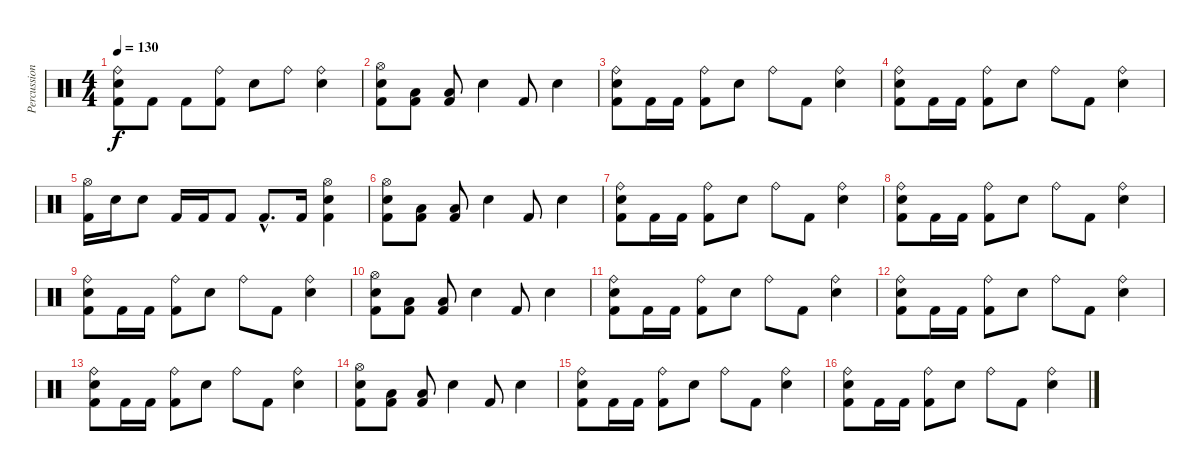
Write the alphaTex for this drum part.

\track ("Percussion" "Percussion") {instrument percussion}
\staff {score}
\articulation defaults
\ts (4 4)
\tempo 130
\clef neutral
\ks c
("Ride (bell)" "Electric Snare (hit)" "Kick (hit) 2").8{dy f} "Kick (hit) 2".8 "Kick (hit) 2".8 ("Ride (bell)" "Kick (hit) 2").8 "Electric Snare (hit)".8 "Ride (bell)".8 ("Ride (bell)" "Electric Snare (hit)").4 |
("Hi-Hat (open)" "Electric Snare (hit)" "Kick (hit) 2").8 ("Low Floor Tom (hit)" "Kick (hit) 2").8 ("Low Floor Tom (hit)" "Kick (hit) 2").8 "Electric Snare (hit)".4 "Kick (hit) 2".8 "Electric Snare (hit)".4 |
("Ride (bell)" "Electric Snare (hit)" "Kick (hit) 2").8 "Kick (hit) 2".16 "Kick (hit) 2".16 ("Ride (bell)" "Kick (hit) 2").8 "Electric Snare (hit)".8 "Ride (bell)".8 "Kick (hit) 2".8 ("Ride (bell)" "Electric Snare (hit)").4 |
("Ride (bell)" "Electric Snare (hit)" "Kick (hit) 2").8 "Kick (hit) 2".16 "Kick (hit) 2".16 ("Ride (bell)" "Kick (hit) 2").8 "Electric Snare (hit)".8 "Ride (bell)".8 "Kick (hit) 2".8 ("Ride (bell)" "Electric Snare (hit)").4 |
("Hi-Hat (open)" "Kick (hit) 2").16 "Electric Snare (hit)".16 "Electric Snare (hit)".8 "Kick (hit) 2".16 "Kick (hit) 2".16 "Kick (hit) 2".8 "Kick (hit) 2"{hac}.8{d} "Kick (hit) 2".16 ("Hi-Hat (open)" "Kick (hit) 2" "Electric Snare (hit)").4 |
("Hi-Hat (open)" "Electric Snare (hit)" "Kick (hit) 2").8 ("Low Floor Tom (hit)" "Kick (hit) 2").8 ("Low Floor Tom (hit)" "Kick (hit) 2").8 "Electric Snare (hit)".4 "Kick (hit) 2".8 "Electric Snare (hit)".4 |
("Ride (bell)" "Electric Snare (hit)" "Kick (hit) 2").8 "Kick (hit) 2".16 "Kick (hit) 2".16 ("Ride (bell)" "Kick (hit) 2").8 "Electric Snare (hit)".8 "Ride (bell)".8 "Kick (hit) 2".8 ("Ride (bell)" "Electric Snare (hit)").4 |
("Ride (bell)" "Electric Snare (hit)" "Kick (hit) 2").8 "Kick (hit) 2".16 "Kick (hit) 2".16 ("Ride (bell)" "Kick (hit) 2").8 "Electric Snare (hit)".8 "Ride (bell)".8 "Kick (hit) 2".8 ("Ride (bell)" "Electric Snare (hit)").4 |
("Ride (bell)" "Electric Snare (hit)" "Kick (hit) 2").8 "Kick (hit) 2".16 "Kick (hit) 2".16 ("Ride (bell)" "Kick (hit) 2").8 "Electric Snare (hit)".8 "Ride (bell)".8 "Kick (hit) 2".8 ("Ride (bell)" "Electric Snare (hit)").4 |
("Hi-Hat (open)" "Electric Snare (hit)" "Kick (hit) 2").8 ("Low Floor Tom (hit)" "Kick (hit) 2").8 ("Low Floor Tom (hit)" "Kick (hit) 2").8 "Electric Snare (hit)".4 "Kick (hit) 2".8 "Electric Snare (hit)".4 |
("Ride (bell)" "Electric Snare (hit)" "Kick (hit) 2").8 "Kick (hit) 2".16 "Kick (hit) 2".16 ("Ride (bell)" "Kick (hit) 2").8 "Electric Snare (hit)".8 "Ride (bell)".8 "Kick (hit) 2".8 ("Ride (bell)" "Electric Snare (hit)").4 |
("Ride (bell)" "Electric Snare (hit)" "Kick (hit) 2").8 "Kick (hit) 2".16 "Kick (hit) 2".16 ("Ride (bell)" "Kick (hit) 2").8 "Electric Snare (hit)".8 "Ride (bell)".8 "Kick (hit) 2".8 ("Ride (bell)" "Electric Snare (hit)").4 |
("Ride (bell)" "Electric Snare (hit)" "Kick (hit) 2").8 "Kick (hit) 2".16 "Kick (hit) 2".16 ("Ride (bell)" "Kick (hit) 2").8 "Electric Snare (hit)".8 "Ride (bell)".8 "Kick (hit) 2".8 ("Ride (bell)" "Electric Snare (hit)").4 |
("Hi-Hat (open)" "Electric Snare (hit)" "Kick (hit) 2").8 ("Low Floor Tom (hit)" "Kick (hit) 2").8 ("Low Floor Tom (hit)" "Kick (hit) 2").8 "Electric Snare (hit)".4 "Kick (hit) 2".8 "Electric Snare (hit)".4 |
("Ride (bell)" "Electric Snare (hit)" "Kick (hit) 2").8 "Kick (hit) 2".16 "Kick (hit) 2".16 ("Ride (bell)" "Kick (hit) 2").8 "Electric Snare (hit)".8 "Ride (bell)".8 "Kick (hit) 2".8 ("Ride (bell)" "Electric Snare (hit)").4 |
("Ride (bell)" "Electric Snare (hit)" "Kick (hit) 2").8 "Kick (hit) 2".16 "Kick (hit) 2".16 ("Ride (bell)" "Kick (hit) 2").8 "Electric Snare (hit)".8 "Ride (bell)".8 "Kick (hit) 2".8 ("Ride (bell)" "Electric Snare (hit)").4
